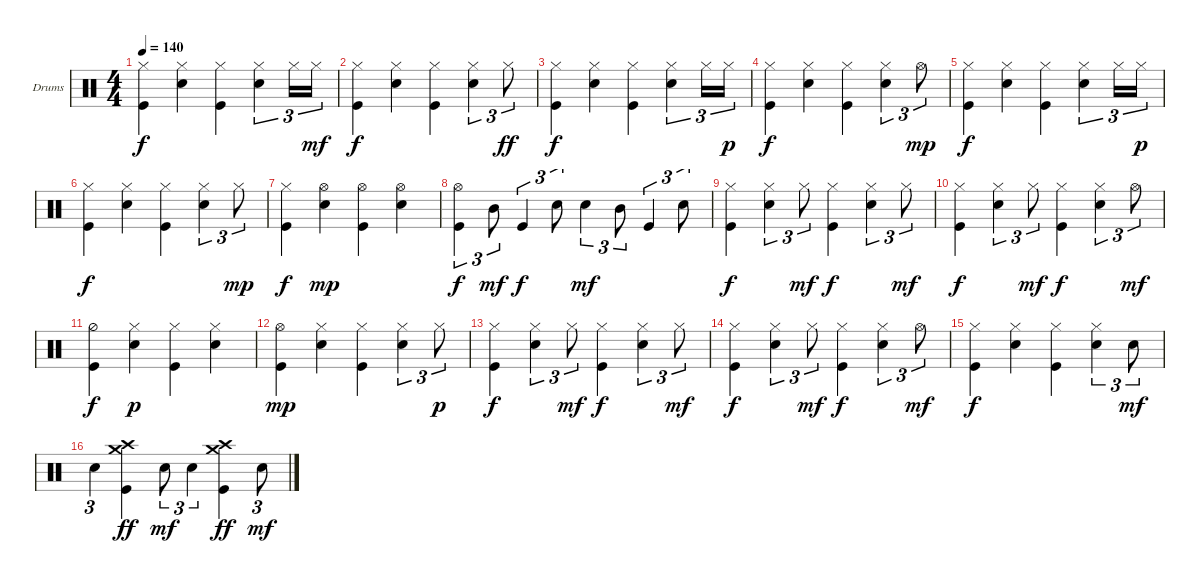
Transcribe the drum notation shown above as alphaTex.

\defaultSystemsLayout 4
\bracketExtendMode groupsimilarinstruments
\firstSystemTrackNameOrientation horizontal
\otherSystemsTrackNameOrientation horizontal
\track ("Drumkit" "Drums") {instrument percussion}
\staff {score}
\articulation defaults
\ts (4 4)
\tempo 140
\clef neutral
\ks c
("Hi-Hat (closed)" "Kick (hit)").4{dy f} ("Hi-Hat (closed)" "Snare (hit) 2").4 ("Hi-Hat (closed)" "Kick (hit)").4 ("Hi-Hat (closed)" "Snare (hit) 2").4{tu (3 2)} "Hi-Hat (closed)".16{tu (3 2)} "Hi-Hat (closed)".16{tu (3 2) dy mf} |
("Hi-Hat (closed)" "Kick (hit)").4{dy f} ("Hi-Hat (closed)" "Snare (hit) 2").4 ("Hi-Hat (closed)" "Kick (hit)").4 ("Hi-Hat (closed)" "Snare (hit) 2").4{tu (3 2)} "Hi-Hat (closed)".8{tu (3 2) dy ff} |
("Hi-Hat (closed)" "Kick (hit)").4{dy f} ("Hi-Hat (closed)" "Snare (hit) 2").4 ("Hi-Hat (closed)" "Kick (hit)").4 ("Hi-Hat (closed)" "Snare (hit) 2").4{tu (3 2)} "Hi-Hat (closed)".16{tu (3 2)} "Hi-Hat (closed)".16{tu (3 2) dy p} |
("Hi-Hat (closed)" "Kick (hit)").4{dy f} ("Hi-Hat (closed)" "Snare (hit) 2").4 ("Hi-Hat (closed)" "Kick (hit)").4 ("Hi-Hat (closed)" "Snare (hit) 2").4{tu (3 2)} "Hi-Hat (open)".8{tu (3 2) dy mp} |
("Hi-Hat (closed)" "Kick (hit)").4{dy f} ("Hi-Hat (closed)" "Snare (hit) 2").4 ("Hi-Hat (closed)" "Kick (hit)").4 ("Hi-Hat (closed)" "Snare (hit) 2").4{tu (3 2)} "Hi-Hat (closed)".16{tu (3 2)} "Hi-Hat (closed)".16{tu (3 2) dy p} |
("Hi-Hat (closed)" "Kick (hit)").4{dy f} ("Hi-Hat (closed)" "Snare (hit) 2").4 ("Hi-Hat (closed)" "Kick (hit)").4 ("Hi-Hat (closed)" "Snare (hit) 2").4{tu (3 2)} "Hi-Hat (closed)".8{tu (3 2) dy mp} |
("Hi-Hat (closed)" "Kick (hit)").4{dy f} ("Hi-Hat (open)" "Snare (hit) 2").4{dy mp} ("Hi-Hat (open)" "Kick (hit)").4 ("Hi-Hat (open)" "Snare (hit) 2").4 |
("Hi-Hat (open)" "Kick (hit)").4{tu (3 2) dy f} "Mid Tom (hit)".8{tu (3 2) dy mf} "Kick (hit)".4{tu (3 2) dy f} "Snare (hit) 2".8{tu (3 2)} "Snare (hit) 2".4{tu (3 2) dy mf} "Mid Tom (hit)".8{tu (3 2)} "Kick (hit)".4{tu (3 2)} "Snare (hit) 2".8{tu (3 2)} |
("Hi-Hat (closed)" "Kick (hit)").4{dy f} ("Hi-Hat (closed)" "Snare (hit) 2").4{tu (3 2)} "Hi-Hat (closed)".8{tu (3 2) dy mf} ("Hi-Hat (closed)" "Kick (hit)").4{dy f} ("Hi-Hat (closed)" "Snare (hit) 2").4{tu (3 2)} "Hi-Hat (closed)".8{tu (3 2) dy mf} |
("Hi-Hat (closed)" "Kick (hit)").4{dy f} ("Hi-Hat (closed)" "Snare (hit) 2").4{tu (3 2)} "Hi-Hat (closed)".8{tu (3 2) dy mf} ("Hi-Hat (closed)" "Kick (hit)").4{dy f} ("Hi-Hat (closed)" "Snare (hit) 2").4{tu (3 2)} "Hi-Hat (open)".8{tu (3 2) dy mf} |
("Hi-Hat (half)" "Kick (hit)").4{dy f} ("Hi-Hat (closed)" "Snare (hit) 2").4{dy p} ("Hi-Hat (closed)" "Kick (hit)").4 ("Hi-Hat (closed)" "Snare (hit) 2").4 |
("Hi-Hat (open)" "Kick (hit)").4{dy mp} ("Hi-Hat (closed)" "Snare (hit) 2").4 ("Hi-Hat (closed)" "Kick (hit)").4 ("Hi-Hat (closed)" "Snare (hit) 2").4{tu (3 2)} "Hi-Hat (closed)".8{tu (3 2) dy p} |
("Hi-Hat (closed)" "Kick (hit)").4{dy f} ("Hi-Hat (closed)" "Snare (hit) 2").4{tu (3 2)} "Hi-Hat (closed)".8{tu (3 2) dy mf} ("Hi-Hat (closed)" "Kick (hit)").4{dy f} ("Hi-Hat (closed)" "Snare (hit) 2").4{tu (3 2)} "Hi-Hat (closed)".8{tu (3 2) dy mf} |
("Hi-Hat (closed)" "Kick (hit)").4{dy f} ("Hi-Hat (closed)" "Snare (hit) 2").4{tu (3 2)} "Hi-Hat (closed)".8{tu (3 2) dy mf} ("Hi-Hat (closed)" "Kick (hit)").4{dy f} ("Hi-Hat (closed)" "Snare (hit) 2").4{tu (3 2)} "Hi-Hat (open)".8{tu (3 2) dy mf} |
("Hi-Hat (closed)" "Kick (hit)").4{dy f} ("Hi-Hat (closed)" "Snare (hit) 2").4 ("Hi-Hat (closed)" "Kick (hit)").4 ("Hi-Hat (closed)" "Snare (hit) 2").4{tu (3 2)} "Snare (hit) 2".8{tu (3 2) dy mf} |
"Snare (hit) 2".4{tu (3 2)} ("Crash medium (hit)" "Crash high (hit)" "Kick (hit)").4{dy ff} "Snare (hit) 2".8{tu (3 2) dy mf} "Snare (hit) 2".4{tu (3 2)} ("Crash medium (hit)" "Crash high (hit)" "Kick (hit)").4{dy ff} "Snare (hit) 2".8{tu (3 2) dy mf}
